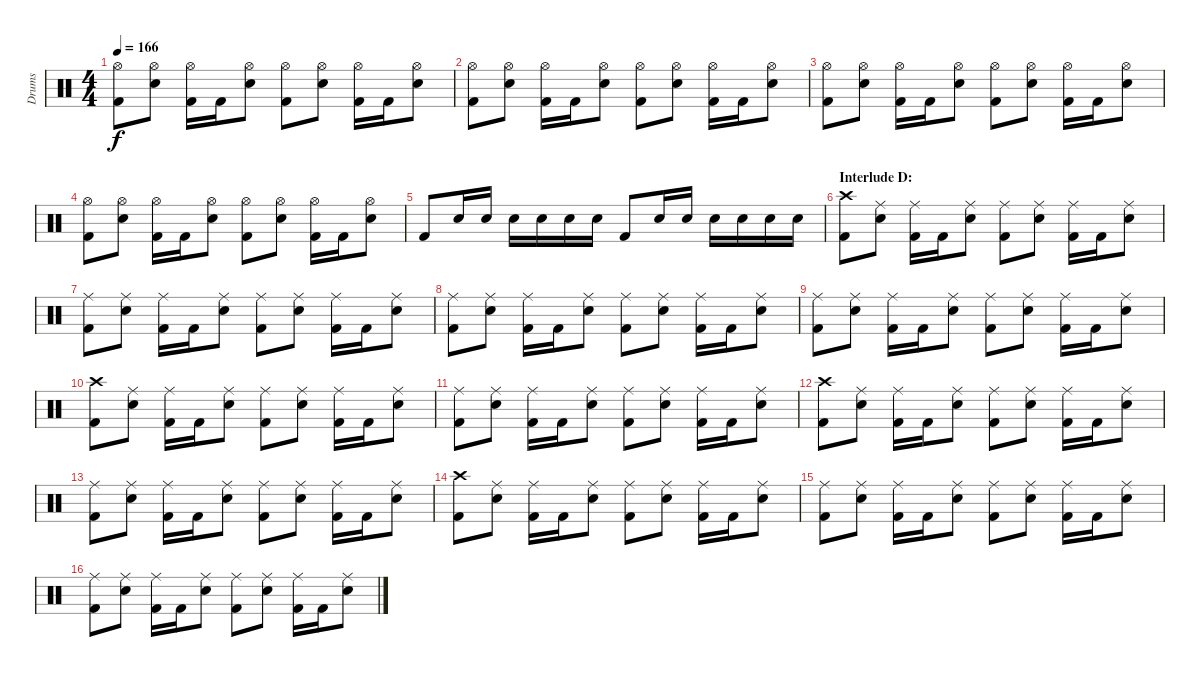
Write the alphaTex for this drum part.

\track ("Drums" "Drums") {instrument percussion}
\staff {score}
\articulation defaults
\ts (4 4)
\tempo 166
\clef neutral
\ks c
("Hi-Hat (open)" "Kick (hit) 2").8{dy f} ("Hi-Hat (open)" "Electric Snare (hit)").8 ("Hi-Hat (open)" "Kick (hit) 2").16 "Kick (hit) 2".16 ("Hi-Hat (open)" "Electric Snare (hit)").8 ("Hi-Hat (open)" "Kick (hit) 2").8 ("Hi-Hat (open)" "Electric Snare (hit)").8 ("Hi-Hat (open)" "Kick (hit) 2").16 "Kick (hit) 2".16 ("Hi-Hat (open)" "Electric Snare (hit)").8 |
("Hi-Hat (open)" "Kick (hit) 2").8 ("Hi-Hat (open)" "Electric Snare (hit)").8 ("Hi-Hat (open)" "Kick (hit) 2").16 "Kick (hit) 2".16 ("Hi-Hat (open)" "Electric Snare (hit)").8 ("Hi-Hat (open)" "Kick (hit) 2").8 ("Hi-Hat (open)" "Electric Snare (hit)").8 ("Hi-Hat (open)" "Kick (hit) 2").16 "Kick (hit) 2".16 ("Hi-Hat (open)" "Electric Snare (hit)").8 |
("Hi-Hat (open)" "Kick (hit) 2").8 ("Hi-Hat (open)" "Electric Snare (hit)").8 ("Hi-Hat (open)" "Kick (hit) 2").16 "Kick (hit) 2".16 ("Hi-Hat (open)" "Electric Snare (hit)").8 ("Hi-Hat (open)" "Kick (hit) 2").8 ("Hi-Hat (open)" "Electric Snare (hit)").8 ("Hi-Hat (open)" "Kick (hit) 2").16 "Kick (hit) 2".16 ("Hi-Hat (open)" "Electric Snare (hit)").8 |
("Hi-Hat (open)" "Kick (hit) 2").8 ("Hi-Hat (open)" "Electric Snare (hit)").8 ("Hi-Hat (open)" "Kick (hit) 2").16 "Kick (hit) 2".16 ("Hi-Hat (open)" "Electric Snare (hit)").8 ("Hi-Hat (open)" "Kick (hit) 2").8 ("Hi-Hat (open)" "Electric Snare (hit)").8 ("Hi-Hat (open)" "Kick (hit) 2").16 "Kick (hit) 2".16 ("Hi-Hat (open)" "Electric Snare (hit)").8 |
"Kick (hit) 2".8 "Electric Snare (hit)".16 "Electric Snare (hit)".16 "Electric Snare (hit)".16 "Electric Snare (hit)".16 "Electric Snare (hit)".16 "Electric Snare (hit)".16 "Kick (hit) 2".8 "Electric Snare (hit)".16 "Electric Snare (hit)".16 "Electric Snare (hit)".16 "Electric Snare (hit)".16 "Electric Snare (hit)".16 "Electric Snare (hit)".16 |
\section ("" "Interlude D:")
("Crash high (hit)" "Kick (hit) 2").8 ("Ride (middle)" "Electric Snare (hit)").8 ("Ride (middle)" "Kick (hit) 2").16 "Kick (hit) 2".16 ("Ride (middle)" "Electric Snare (hit)").8 ("Ride (middle)" "Kick (hit) 2").8 ("Ride (middle)" "Electric Snare (hit)").8 ("Ride (middle)" "Kick (hit) 2").16 "Kick (hit) 2".16 ("Ride (middle)" "Electric Snare (hit)").8 |
("Ride (middle)" "Kick (hit) 2").8 ("Ride (middle)" "Electric Snare (hit)").8 ("Ride (middle)" "Kick (hit) 2").16 "Kick (hit) 2".16 ("Ride (middle)" "Electric Snare (hit)").8 ("Ride (middle)" "Kick (hit) 2").8 ("Ride (middle)" "Electric Snare (hit)").8 ("Ride (middle)" "Kick (hit) 2").16 "Kick (hit) 2".16 ("Ride (middle)" "Electric Snare (hit)").8 |
("Ride (middle)" "Kick (hit) 2").8 ("Ride (middle)" "Electric Snare (hit)").8 ("Ride (middle)" "Kick (hit) 2").16 "Kick (hit) 2".16 ("Ride (middle)" "Electric Snare (hit)").8 ("Ride (middle)" "Kick (hit) 2").8 ("Ride (middle)" "Electric Snare (hit)").8 ("Ride (middle)" "Kick (hit) 2").16 "Kick (hit) 2".16 ("Ride (middle)" "Electric Snare (hit)").8 |
("Ride (middle)" "Kick (hit) 2").8 ("Ride (middle)" "Electric Snare (hit)").8 ("Ride (middle)" "Kick (hit) 2").16 "Kick (hit) 2".16 ("Ride (middle)" "Electric Snare (hit)").8 ("Ride (middle)" "Kick (hit) 2").8 ("Ride (middle)" "Electric Snare (hit)").8 ("Ride (middle)" "Kick (hit) 2").16 "Kick (hit) 2".16 ("Ride (middle)" "Electric Snare (hit)").8 |
("Crash high (hit)" "Kick (hit) 2").8 ("Ride (middle)" "Electric Snare (hit)").8 ("Ride (middle)" "Kick (hit) 2").16 "Kick (hit) 2".16 ("Ride (middle)" "Electric Snare (hit)").8 ("Ride (middle)" "Kick (hit) 2").8 ("Ride (middle)" "Electric Snare (hit)").8 ("Ride (middle)" "Kick (hit) 2").16 "Kick (hit) 2".16 ("Ride (middle)" "Electric Snare (hit)").8 |
("Ride (middle)" "Kick (hit) 2").8 ("Ride (middle)" "Electric Snare (hit)").8 ("Ride (middle)" "Kick (hit) 2").16 "Kick (hit) 2".16 ("Ride (middle)" "Electric Snare (hit)").8 ("Ride (middle)" "Kick (hit) 2").8 ("Ride (middle)" "Electric Snare (hit)").8 ("Ride (middle)" "Kick (hit) 2").16 "Kick (hit) 2".16 ("Ride (middle)" "Electric Snare (hit)").8 |
("Crash high (hit)" "Kick (hit) 2").8 ("Ride (middle)" "Electric Snare (hit)").8 ("Ride (middle)" "Kick (hit) 2").16 "Kick (hit) 2".16 ("Ride (middle)" "Electric Snare (hit)").8 ("Ride (middle)" "Kick (hit) 2").8 ("Ride (middle)" "Electric Snare (hit)").8 ("Ride (middle)" "Kick (hit) 2").16 "Kick (hit) 2".16 ("Ride (middle)" "Electric Snare (hit)").8 |
("Ride (middle)" "Kick (hit) 2").8 ("Ride (middle)" "Electric Snare (hit)").8 ("Ride (middle)" "Kick (hit) 2").16 "Kick (hit) 2".16 ("Ride (middle)" "Electric Snare (hit)").8 ("Ride (middle)" "Kick (hit) 2").8 ("Ride (middle)" "Electric Snare (hit)").8 ("Ride (middle)" "Kick (hit) 2").16 "Kick (hit) 2".16 ("Ride (middle)" "Electric Snare (hit)").8 |
("Crash high (hit)" "Kick (hit) 2").8 ("Ride (middle)" "Electric Snare (hit)").8 ("Ride (middle)" "Kick (hit) 2").16 "Kick (hit) 2".16 ("Ride (middle)" "Electric Snare (hit)").8 ("Ride (middle)" "Kick (hit) 2").8 ("Ride (middle)" "Electric Snare (hit)").8 ("Ride (middle)" "Kick (hit) 2").16 "Kick (hit) 2".16 ("Ride (middle)" "Electric Snare (hit)").8 |
("Ride (middle)" "Kick (hit) 2").8 ("Ride (middle)" "Electric Snare (hit)").8 ("Ride (middle)" "Kick (hit) 2").16 "Kick (hit) 2".16 ("Ride (middle)" "Electric Snare (hit)").8 ("Ride (middle)" "Kick (hit) 2").8 ("Ride (middle)" "Electric Snare (hit)").8 ("Ride (middle)" "Kick (hit) 2").16 "Kick (hit) 2".16 ("Ride (middle)" "Electric Snare (hit)").8 |
("Ride (middle)" "Kick (hit) 2").8 ("Ride (middle)" "Electric Snare (hit)").8 ("Ride (middle)" "Kick (hit) 2").16 "Kick (hit) 2".16 ("Ride (middle)" "Electric Snare (hit)").8 ("Ride (middle)" "Kick (hit) 2").8 ("Ride (middle)" "Electric Snare (hit)").8 ("Ride (middle)" "Kick (hit) 2").16 "Kick (hit) 2".16 ("Ride (middle)" "Electric Snare (hit)").8
